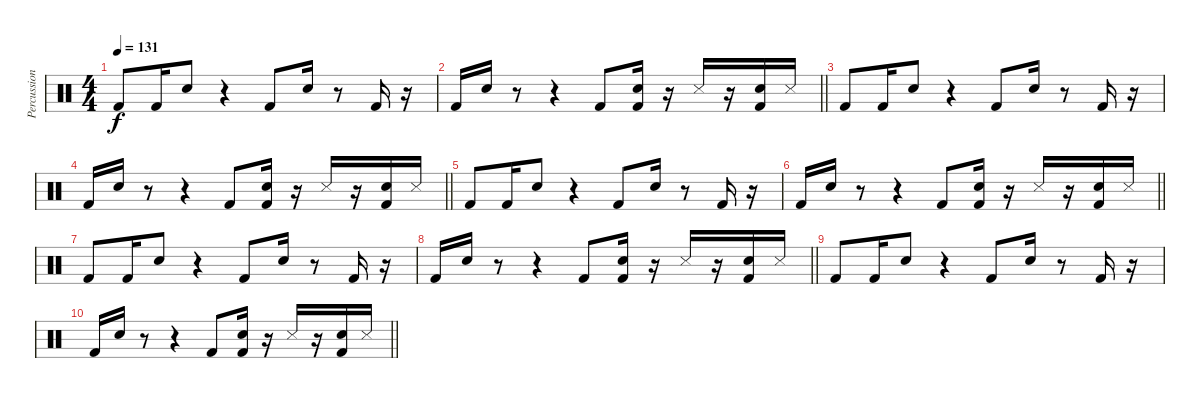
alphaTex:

\track ("Percussion" "Percussion") {instrument percussion}
\staff {score}
\articulation defaults
\ts (4 4)
\tempo 131
\clef neutral
\ks c "Kick (hit) 2".8{dy f} "Kick (hit) 2".16 "Snare (hit) 2".8
r.4 "Kick (hit) 2".8 "Snare (hit) 2".16 r.8 "Kick (hit) 2".16 r.16 |
\barLineRight lightlight "Kick (hit) 2".16 "Snare (hit) 2".16
r.8 r.4 "Kick (hit) 2".8 ("Snare (hit) 2" "Kick (hit) 2").16 r.16 "Snare (side stick) 3".16 r.16 ("Snare (hit) 2" "Kick (hit) 2").16 "Snare (side stick) 3".16 |
"Kick (hit) 2".8 "Kick (hit) 2".16 "Snare (hit) 2".8 r.4 "Kick (hit) 2".8 "Snare (hit) 2".16 r.8 "Kick (hit) 2".16 r.16 |
\barLineRight lightlight "Kick (hit) 2".16 "Snare (hit) 2".16
r.8 r.4 "Kick (hit) 2".8 ("Snare (hit) 2" "Kick (hit) 2").16 r.16 "Snare (side stick) 3".16 r.16 ("Snare (hit) 2" "Kick (hit) 2").16 "Snare (side stick) 3".16 |
"Kick (hit) 2".8 "Kick (hit) 2".16 "Snare (hit) 2".8 r.4 "Kick (hit) 2".8 "Snare (hit) 2".16 r.8 "Kick (hit) 2".16 r.16 |
\barLineRight lightlight "Kick (hit) 2".16 "Snare (hit) 2".16
r.8 r.4 "Kick (hit) 2".8 ("Snare (hit) 2" "Kick (hit) 2").16 r.16 "Snare (side stick) 3".16 r.16 ("Snare (hit) 2" "Kick (hit) 2").16 "Snare (side stick) 3".16 |
"Kick (hit) 2".8 "Kick (hit) 2".16 "Snare (hit) 2".8 r.4 "Kick (hit) 2".8 "Snare (hit) 2".16 r.8 "Kick (hit) 2".16 r.16 |
\barLineRight lightlight "Kick (hit) 2".16 "Snare (hit) 2".16
r.8 r.4 "Kick (hit) 2".8 ("Snare (hit) 2" "Kick (hit) 2").16 r.16 "Snare (side stick) 3".16 r.16 ("Snare (hit) 2" "Kick (hit) 2").16 "Snare (side stick) 3".16 |
"Kick (hit) 2".8 "Kick (hit) 2".16 "Snare (hit) 2".8 r.4 "Kick (hit) 2".8 "Snare (hit) 2".16 r.8 "Kick (hit) 2".16 r.16 |
\barLineRight lightlight "Kick (hit) 2".16 "Snare (hit) 2".16
r.8 r.4 "Kick (hit) 2".8 ("Snare (hit) 2" "Kick (hit) 2").16 r.16 "Snare (side stick) 3".16 r.16 ("Snare (hit) 2" "Kick (hit) 2").16 "Snare (side stick) 3".16
